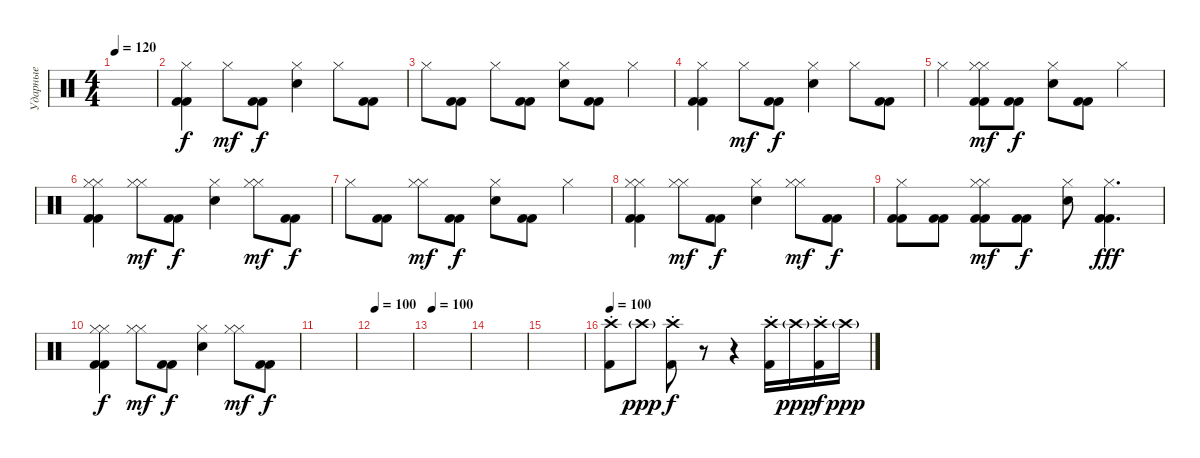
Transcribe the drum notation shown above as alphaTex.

\track ("Ударные" "Ударные") {instrument percussion}
\staff {score}
\articulation defaults
\ts (4 4)
\tempo 120
\clef neutral
\ks c
|
("Hi-Hat (closed)" "Kick (hit) 2" "Kick (hit) 2").4 "Hi-Hat (closed)".8{dy mf} ("Kick (hit) 2" "Kick (hit) 2").8{dy f} ("Hi-Hat (closed)" "Electric Snare (hit)").4 "Hi-Hat (closed)".8 ("Kick (hit) 2" "Kick (hit) 2").8 |
"Hi-Hat (closed)".8 ("Kick (hit) 2" "Kick (hit) 2").8 "Hi-Hat (closed)".8 ("Kick (hit) 2" "Kick (hit) 2").8 ("Hi-Hat (closed)" "Electric Snare (hit)").8 ("Kick (hit) 2" "Kick (hit) 2").8 "Hi-Hat (closed)".4 |
("Hi-Hat (closed)" "Kick (hit) 2" "Kick (hit) 2").4 "Hi-Hat (closed)".8{dy mf} ("Kick (hit) 2" "Kick (hit) 2").8{dy f} ("Hi-Hat (closed)" "Electric Snare (hit)").4 "Hi-Hat (closed)".8 ("Kick (hit) 2" "Kick (hit) 2").8 |
"Hi-Hat (closed)".4 ("Hi-Hat (closed)" "Hi-Hat (closed)" "Kick (hit) 2" "Kick (hit) 2").8{dy mf} ("Kick (hit) 2" "Kick (hit) 2").8{dy f} ("Hi-Hat (closed)" "Electric Snare (hit)").8 ("Kick (hit) 2" "Kick (hit) 2").8 "Hi-Hat (closed)".4 |
("Hi-Hat (closed)" "Hi-Hat (closed)" "Kick (hit) 2" "Kick (hit) 2").4 ("Hi-Hat (closed)" "Hi-Hat (closed)").8{dy mf} ("Kick (hit) 2" "Kick (hit) 2").8{dy f} ("Hi-Hat (closed)" "Electric Snare (hit)").4 ("Hi-Hat (closed)" "Hi-Hat (closed)").8{dy mf} ("Kick (hit) 2" "Kick (hit) 2").8{dy f} |
"Hi-Hat (closed)".8 ("Kick (hit) 2" "Kick (hit) 2").8 ("Hi-Hat (closed)" "Hi-Hat (closed)").8{dy mf} ("Kick (hit) 2" "Kick (hit) 2").8{dy f} ("Hi-Hat (closed)" "Electric Snare (hit)").8 ("Kick (hit) 2" "Kick (hit) 2").8 "Hi-Hat (closed)".4 |
("Hi-Hat (closed)" "Hi-Hat (closed)" "Kick (hit) 2" "Kick (hit) 2").4 ("Hi-Hat (closed)" "Hi-Hat (closed)").8{dy mf} ("Kick (hit) 2" "Kick (hit) 2").8{dy f} ("Hi-Hat (closed)" "Electric Snare (hit)").4 ("Hi-Hat (closed)" "Hi-Hat (closed)").8{dy mf} ("Kick (hit) 2" "Kick (hit) 2").8{dy f} |
("Hi-Hat (closed)" "Kick (hit) 2" "Kick (hit) 2").8 ("Kick (hit) 2" "Kick (hit) 2").8 ("Hi-Hat (closed)" "Hi-Hat (closed)" "Kick (hit) 2" "Kick (hit) 2").8{dy mf} ("Kick (hit) 2" "Kick (hit) 2").8{dy f} ("Hi-Hat (closed)" "Electric Snare (hit)").8 ("Hi-Hat (closed)" "Kick (hit) 2" "Kick (hit) 2").4{d dy fff} |
("Hi-Hat (closed)" "Hi-Hat (closed)" "Kick (hit) 2" "Kick (hit) 2").4{dy f} ("Hi-Hat (closed)" "Hi-Hat (closed)").8{dy mf} ("Kick (hit) 2" "Kick (hit) 2").8{dy f} ("Hi-Hat (closed)" "Electric Snare (hit)").4 ("Hi-Hat (closed)" "Hi-Hat (closed)").8{dy mf} ("Kick (hit) 2" "Kick (hit) 2").8{dy f} |
|
\tempo 100
|
\tempo 100
|
|
|
\tempo 100
("Crash high (hit)"{st} "Kick (hit) 2").8 "Crash high (hit)"{g}.8{dy ppp} ("Crash high (hit)"{st} "Kick (hit) 2").8{dy f} r.8 r.4 ("Crash high (hit)"{st} "Kick (hit) 2").16 "Crash high (hit)"{g}.16{dy ppp} ("Crash high (hit)"{st} "Kick (hit) 2").16{dy f} "Crash high (hit)"{g}.16{dy ppp}
